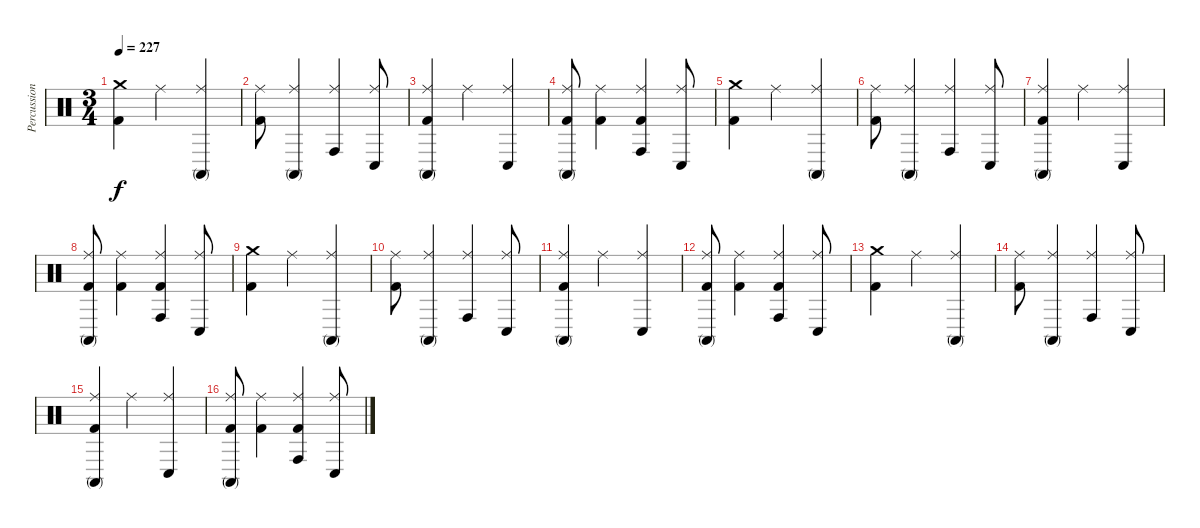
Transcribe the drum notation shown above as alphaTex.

\track ("Percussion" "Percussion") {instrument percussion}
\staff {score}
\articulation defaults
\ts (3 4)
\tempo 227
\clef neutral
\ks c
("Crash medium (hit)" "Kick (hit) 2").4{dy f} "Ride (middle)".4 ("Ride (middle)" "Conga high (mute)").4 |
("Ride (middle)" "Kick (hit) 2").8 ("Ride (middle)" "Conga high (mute)").4 ("Ride (middle)" "Conga high (hit)").4 ("Ride (middle)" "Conga low (hit)").8 |
("Ride (middle)" "Conga high (mute)" "Kick (hit) 2").4 "Ride (middle)".4 ("Ride (middle)" "Conga low (hit)").4 |
("Ride (middle)" "Conga high (mute)" "Kick (hit) 2").8 ("Ride (middle)" "Kick (hit) 2").4 ("Ride (middle)" "Conga high (hit)" "Kick (hit) 2").4 ("Ride (middle)" "Conga low (hit)").8 |
("Crash medium (hit)" "Kick (hit) 2").4 "Ride (middle)".4 ("Ride (middle)" "Conga high (mute)").4 |
("Ride (middle)" "Kick (hit) 2").8 ("Ride (middle)" "Conga high (mute)").4 ("Ride (middle)" "Conga high (hit)").4 ("Ride (middle)" "Conga low (hit)").8 |
("Ride (middle)" "Conga high (mute)" "Kick (hit) 2").4 "Ride (middle)".4 ("Ride (middle)" "Conga low (hit)").4 |
("Ride (middle)" "Conga high (mute)" "Kick (hit) 2").8 ("Ride (middle)" "Kick (hit) 2").4 ("Ride (middle)" "Conga high (hit)" "Kick (hit) 2").4 ("Ride (middle)" "Conga low (hit)").8 |
("Crash medium (hit)" "Kick (hit) 2").4 "Ride (middle)".4 ("Ride (middle)" "Conga high (mute)").4 |
("Ride (middle)" "Kick (hit) 2").8 ("Ride (middle)" "Conga high (mute)").4 ("Ride (middle)" "Conga high (hit)").4 ("Ride (middle)" "Conga low (hit)").8 |
("Ride (middle)" "Conga high (mute)" "Kick (hit) 2").4 "Ride (middle)".4 ("Ride (middle)" "Conga low (hit)").4 |
("Ride (middle)" "Conga high (mute)" "Kick (hit) 2").8 ("Ride (middle)" "Kick (hit) 2").4 ("Ride (middle)" "Conga high (hit)" "Kick (hit) 2").4 ("Ride (middle)" "Conga low (hit)").8 |
("Crash medium (hit)" "Kick (hit) 2").4 "Ride (middle)".4 ("Ride (middle)" "Conga high (mute)").4 |
("Ride (middle)" "Kick (hit) 2").8 ("Ride (middle)" "Conga high (mute)").4 ("Ride (middle)" "Conga high (hit)").4 ("Ride (middle)" "Conga low (hit)").8 |
("Ride (middle)" "Conga high (mute)" "Kick (hit) 2").4 "Ride (middle)".4 ("Ride (middle)" "Conga low (hit)").4 |
("Ride (middle)" "Conga high (mute)" "Kick (hit) 2").8 ("Ride (middle)" "Kick (hit) 2").4 ("Ride (middle)" "Conga high (hit)" "Kick (hit) 2").4 ("Ride (middle)" "Conga low (hit)").8
